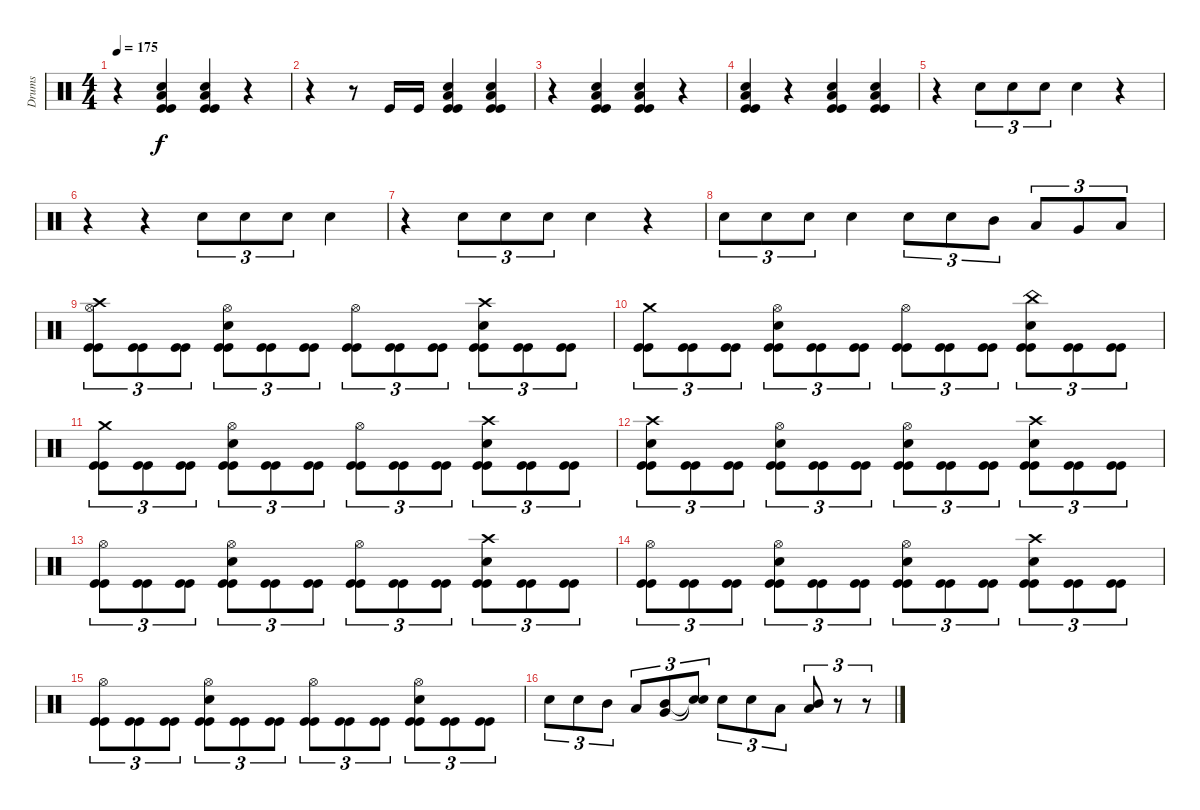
\track ("Drums" "Drums") {instrument percussion}
\staff {score}
\articulation defaults
\ts (4 4)
\tempo 175
\clef neutral
\ks c
r.4{dy f} ("Kick (hit)" "Kick (hit)" "Low Tom (hit)" "Snare (hit) 2").4 ("Kick (hit)" "Kick (hit)" "Low Tom (hit)" "Snare (hit) 2").4 r.4 |
r.4 r.8 "Kick (hit)".16 "Kick (hit)".16 ("Kick (hit)" "Kick (hit)" "Low Tom (hit)" "Snare (hit) 2").4 ("Kick (hit)" "Kick (hit)" "Low Tom (hit)" "Snare (hit) 2").4 |
r.4 ("Kick (hit)" "Kick (hit)" "Low Tom (hit)" "Snare (hit) 2").4 ("Kick (hit)" "Kick (hit)" "Low Tom (hit)" "Snare (hit) 2").4 r.4 |
("Kick (hit)" "Kick (hit)" "Low Tom (hit)" "Snare (hit) 2").4 r.4 ("Kick (hit)" "Kick (hit)" "Low Tom (hit)" "Snare (hit) 2").4 ("Kick (hit)" "Kick (hit)" "Low Tom (hit)" "Snare (hit) 2").4 |
r.4 "Snare (hit) 2".8{tu (3 2)} "Snare (hit) 2".8{tu (3 2)} "Snare (hit) 2".8{tu (3 2)} "Snare (hit) 2".4 r.4 |
r.4 r.4 "Snare (hit) 2".8{tu (3 2)} "Snare (hit) 2".8{tu (3 2)} "Snare (hit) 2".8{tu (3 2)} "Snare (hit) 2".4 |
r.4 "Snare (hit) 2".8{tu (3 2)} "Snare (hit) 2".8{tu (3 2)} "Snare (hit) 2".8{tu (3 2)} "Snare (hit) 2".4 r.4 |
"Snare (hit) 2".8{tu (3 2)} "Snare (hit) 2".8{tu (3 2)} "Snare (hit) 2".8{tu (3 2)} "Snare (hit) 2".4 "Snare (hit) 2".8{tu (3 2)} "Snare (hit) 2".8{tu (3 2)} "Mid Tom (hit)".8{tu (3 2)} "Low Tom (hit)".8{tu (3 2)} "Very Low Tom (hit)".8{tu (3 2)} "Low Floor Tom (hit)".8{tu (3 2)} |
("Kick (hit)" "Kick (hit)" "Hi-Hat (open)" "Crash high (hit)").8{tu (3 2)} ("Kick (hit)" "Kick (hit)").8{tu (3 2)} ("Kick (hit)" "Kick (hit)").8{tu (3 2)} ("Kick (hit)" "Kick (hit)" "Snare (hit) 2" "Hi-Hat (open)").8{tu (3 2)} ("Kick (hit)" "Kick (hit)").8{tu (3 2)} ("Kick (hit)" "Kick (hit)").8{tu (3 2)} ("Kick (hit)" "Kick (hit)" "Hi-Hat (open)").8{tu (3 2)} ("Kick (hit)" "Kick (hit)").8{tu (3 2)} ("Kick (hit)" "Kick (hit)").8{tu (3 2)} ("Kick (hit)" "Kick (hit)" "Snare (hit) 2" "Crash high (hit)").8{tu (3 2)} ("Kick (hit)" "Kick (hit)").8{tu (3 2)} ("Kick (hit)" "Kick (hit)").8{tu (3 2)} |
("Kick (hit)" "Kick (hit)" "Crash medium (hit)").8{tu (3 2)} ("Kick (hit)" "Kick (hit)").8{tu (3 2)} ("Kick (hit)" "Kick (hit)").8{tu (3 2)} ("Kick (hit)" "Kick (hit)" "Snare (hit) 2" "Hi-Hat (open)").8{tu (3 2)} ("Kick (hit)" "Kick (hit)").8{tu (3 2)} ("Kick (hit)" "Kick (hit)").8{tu (3 2)} ("Kick (hit)" "Kick (hit)" "Hi-Hat (open)").8{tu (3 2)} ("Kick (hit)" "Kick (hit)").8{tu (3 2)} ("Kick (hit)" "Kick (hit)").8{tu (3 2)} ("Kick (hit)" "Kick (hit)" "Snare (hit) 2" "China (hit)").8{tu (3 2)} ("Kick (hit)" "Kick (hit)").8{tu (3 2)} ("Kick (hit)" "Kick (hit)").8{tu (3 2)} |
("Kick (hit)" "Kick (hit)" "Crash medium (hit)").8{tu (3 2)} ("Kick (hit)" "Kick (hit)").8{tu (3 2)} ("Kick (hit)" "Kick (hit)").8{tu (3 2)} ("Kick (hit)" "Kick (hit)" "Snare (hit) 2" "Hi-Hat (open)").8{tu (3 2)} ("Kick (hit)" "Kick (hit)").8{tu (3 2)} ("Kick (hit)" "Kick (hit)").8{tu (3 2)} ("Kick (hit)" "Kick (hit)" "Hi-Hat (open)").8{tu (3 2)} ("Kick (hit)" "Kick (hit)").8{tu (3 2)} ("Kick (hit)" "Kick (hit)").8{tu (3 2)} ("Kick (hit)" "Kick (hit)" "Snare (hit) 2" "Crash high (hit)").8{tu (3 2)} ("Kick (hit)" "Kick (hit)").8{tu (3 2)} ("Kick (hit)" "Kick (hit)").8{tu (3 2)} |
("Kick (hit)" "Kick (hit)" "Snare (hit) 2" "Crash high (hit)").8{tu (3 2)} ("Kick (hit)" "Kick (hit)").8{tu (3 2)} ("Kick (hit)" "Kick (hit)").8{tu (3 2)} ("Kick (hit)" "Kick (hit)" "Snare (hit) 2" "Hi-Hat (open)").8{tu (3 2)} ("Kick (hit)" "Kick (hit)").8{tu (3 2)} ("Kick (hit)" "Kick (hit)").8{tu (3 2)} ("Kick (hit)" "Kick (hit)" "Hi-Hat (open)" "Snare (hit) 2").8{tu (3 2)} ("Kick (hit)" "Kick (hit)").8{tu (3 2)} ("Kick (hit)" "Kick (hit)").8{tu (3 2)} ("Kick (hit)" "Kick (hit)" "Snare (hit) 2" "Crash high (hit)").8{tu (3 2)} ("Kick (hit)" "Kick (hit)").8{tu (3 2)} ("Kick (hit)" "Kick (hit)").8{tu (3 2)} |
("Kick (hit)" "Kick (hit)" "Hi-Hat (open)").8{tu (3 2)} ("Kick (hit)" "Kick (hit)").8{tu (3 2)} ("Kick (hit)" "Kick (hit)").8{tu (3 2)} ("Kick (hit)" "Kick (hit)" "Snare (hit) 2" "Hi-Hat (open)").8{tu (3 2)} ("Kick (hit)" "Kick (hit)").8{tu (3 2)} ("Kick (hit)" "Kick (hit)").8{tu (3 2)} ("Kick (hit)" "Kick (hit)" "Hi-Hat (open)").8{tu (3 2)} ("Kick (hit)" "Kick (hit)").8{tu (3 2)} ("Kick (hit)" "Kick (hit)").8{tu (3 2)} ("Kick (hit)" "Kick (hit)" "Snare (hit) 2" "Crash high (hit)").8{tu (3 2)} ("Kick (hit)" "Kick (hit)").8{tu (3 2)} ("Kick (hit)" "Kick (hit)").8{tu (3 2)} |
("Kick (hit)" "Kick (hit)" "Hi-Hat (open)").8{tu (3 2)} ("Kick (hit)" "Kick (hit)").8{tu (3 2)} ("Kick (hit)" "Kick (hit)").8{tu (3 2)} ("Kick (hit)" "Kick (hit)" "Snare (hit) 2" "Hi-Hat (open)").8{tu (3 2)} ("Kick (hit)" "Kick (hit)").8{tu (3 2)} ("Kick (hit)" "Kick (hit)").8{tu (3 2)} ("Kick (hit)" "Kick (hit)" "Snare (hit) 2" "Hi-Hat (open)").8{tu (3 2)} ("Kick (hit)" "Kick (hit)").8{tu (3 2)} ("Kick (hit)" "Kick (hit)").8{tu (3 2)} ("Kick (hit)" "Kick (hit)" "Snare (hit) 2" "Crash high (hit)").8{tu (3 2)} ("Kick (hit)" "Kick (hit)").8{tu (3 2)} ("Kick (hit)" "Kick (hit)").8{tu (3 2)} |
("Kick (hit)" "Kick (hit)" "Hi-Hat (open)").8{tu (3 2)} ("Kick (hit)" "Kick (hit)").8{tu (3 2)} ("Kick (hit)" "Kick (hit)").8{tu (3 2)} ("Kick (hit)" "Kick (hit)" "Snare (hit) 2" "Hi-Hat (open)").8{tu (3 2)} ("Kick (hit)" "Kick (hit)").8{tu (3 2)} ("Kick (hit)" "Kick (hit)").8{tu (3 2)} ("Kick (hit)" "Kick (hit)" "Hi-Hat (open)").8{tu (3 2)} ("Kick (hit)" "Kick (hit)").8{tu (3 2)} ("Kick (hit)" "Kick (hit)").8{tu (3 2)} ("Kick (hit)" "Kick (hit)" "Snare (hit) 2" "Hi-Hat (open)").8{tu (3 2)} ("Kick (hit)" "Kick (hit)").8{tu (3 2)} ("Kick (hit)" "Kick (hit)").8{tu (3 2)} |
"Snare (hit) 2".8{tu (3 2)} "Snare (hit) 2".8{tu (3 2)} "Mid Tom (hit)".8{tu (3 2)} "Low Tom (hit)".8{tu (3 2)} ("Very Low Tom (hit)" "Mid Tom (hit)").8{tu (3 2)} ("Snare (hit) 2"{t} "Snare (hit)"{t}).8{tu (3 2)} "Snare (hit) 2".8{tu (3 2)} "Snare (hit) 2".8{tu (3 2)} "Low Tom (hit)".8{tu (3 2)} ("Low Floor Tom (hit)" "Mid Tom (hit)").8{tu (3 2)} r.8{tu (3 2)} r.8{tu (3 2)}
